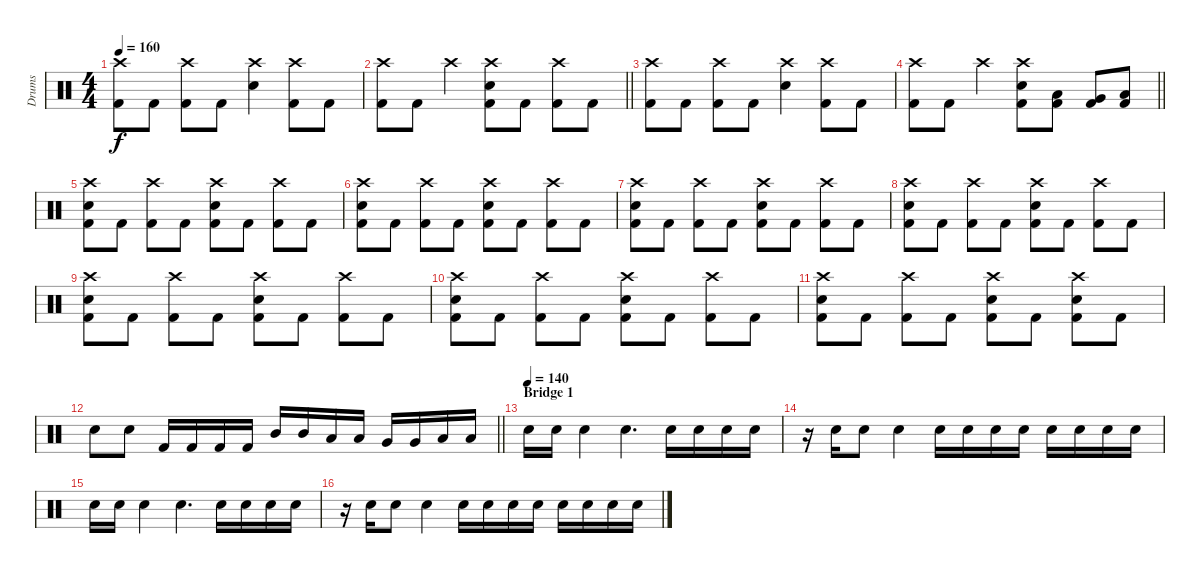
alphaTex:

\track ("Drums" "Drums") {instrument percussion}
\staff {score}
\articulation defaults
\ts (4 4)
\tempo 160
\clef neutral
\ks c
("Crash high (hit)" "Kick (hit) 2").8{dy f} "Kick (hit) 2".8 ("Crash high (hit)" "Kick (hit) 2").8 "Kick (hit) 2".8 ("Crash high (hit)" "Electric Snare (hit)").4 ("Crash high (hit)" "Kick (hit) 2").8 "Kick (hit) 2".8 |
\barLineRight lightlight
("Crash high (hit)" "Kick (hit) 2").8 "Kick (hit) 2".8 "Crash high (hit)".4 ("Crash high (hit)" "Electric Snare (hit)" "Kick (hit) 2").8 "Kick (hit) 2".8 ("Crash high (hit)" "Kick (hit) 2").8 "Kick (hit) 2".8 |
("Crash high (hit)" "Kick (hit) 2").8 "Kick (hit) 2".8 ("Crash high (hit)" "Kick (hit) 2").8 "Kick (hit) 2".8 ("Crash high (hit)" "Electric Snare (hit)").4 ("Crash high (hit)" "Kick (hit) 2").8 "Kick (hit) 2".8 |
\barLineRight lightlight
("Crash high (hit)" "Kick (hit) 2").8 "Kick (hit) 2".8 "Crash high (hit)".4 ("Crash high (hit)" "Electric Snare (hit)" "Kick (hit) 2").8 ("Low Tom (hit)" "Kick (hit) 2").8 ("Very Low Tom (hit)" "Kick (hit) 2").8 ("Low Floor Tom (hit)" "Kick (hit) 2").8 |
\section ("" "")
("Crash high (hit)" "Electric Snare (hit)" "Kick (hit) 2").8 "Kick (hit) 2".8 ("Crash high (hit)" "Kick (hit) 2").8 "Kick (hit) 2".8 ("Crash high (hit)" "Electric Snare (hit)" "Kick (hit) 2").8 "Kick (hit) 2".8 ("Crash high (hit)" "Kick (hit) 2").8 "Kick (hit) 2".8 |
("Crash high (hit)" "Electric Snare (hit)" "Kick (hit) 2").8 "Kick (hit) 2".8 ("Crash high (hit)" "Kick (hit) 2").8 "Kick (hit) 2".8 ("Crash high (hit)" "Electric Snare (hit)" "Kick (hit) 2").8 "Kick (hit) 2".8 ("Crash high (hit)" "Kick (hit) 2").8 "Kick (hit) 2".8 |
("Crash high (hit)" "Electric Snare (hit)" "Kick (hit) 2").8 "Kick (hit) 2".8 ("Crash high (hit)" "Kick (hit) 2").8 "Kick (hit) 2".8 ("Crash high (hit)" "Electric Snare (hit)" "Kick (hit) 2").8 "Kick (hit) 2".8 ("Crash high (hit)" "Kick (hit) 2").8 "Kick (hit) 2".8 |
("Crash high (hit)" "Electric Snare (hit)" "Kick (hit) 2").8 "Kick (hit) 2".8 ("Crash high (hit)" "Kick (hit) 2").8 "Kick (hit) 2".8 ("Crash high (hit)" "Electric Snare (hit)" "Kick (hit) 2").8 "Kick (hit) 2".8 ("Crash high (hit)" "Kick (hit) 2").8 "Kick (hit) 2".8 |
("Crash high (hit)" "Electric Snare (hit)" "Kick (hit) 2").8 "Kick (hit) 2".8 ("Crash high (hit)" "Kick (hit) 2").8 "Kick (hit) 2".8 ("Crash high (hit)" "Electric Snare (hit)" "Kick (hit) 2").8 "Kick (hit) 2".8 ("Crash high (hit)" "Kick (hit) 2").8 "Kick (hit) 2".8 |
("Crash high (hit)" "Electric Snare (hit)" "Kick (hit) 2").8 "Kick (hit) 2".8 ("Crash high (hit)" "Kick (hit) 2").8 "Kick (hit) 2".8 ("Crash high (hit)" "Electric Snare (hit)" "Kick (hit) 2").8 "Kick (hit) 2".8 ("Crash high (hit)" "Kick (hit) 2").8 "Kick (hit) 2".8 |
("Crash high (hit)" "Electric Snare (hit)" "Kick (hit) 2").8 "Kick (hit) 2".8 ("Crash high (hit)" "Kick (hit) 2").8 "Kick (hit) 2".8 ("Crash high (hit)" "Electric Snare (hit)" "Kick (hit) 2").8 "Kick (hit) 2".8 ("Crash high (hit)" "Electric Snare (hit)" "Kick (hit) 2").8 "Kick (hit) 2".8 |
\barLineRight lightlight "Electric Snare (hit)".8 "Electric Snare (hit)".8 "Kick (hit) 2".16 "Kick (hit) 2".16 "Kick (hit) 2".16 "Kick (hit) 2".16 "Mid Tom (hit)".16 "Mid Tom (hit)".16 "Low Tom (hit)".16 "Low Tom (hit)".16 "Very Low Tom (hit)".16 "Very Low Tom (hit)".16 "Low Floor Tom (hit)".16 "Low Floor Tom (hit)".16
|
\section ("" "Bridge 1")
\tempo (140)
"Electric Snare (hit)".16 "Electric Snare (hit)".16 "Electric Snare (hit)".4 "Electric Snare (hit)".4{d} "Electric Snare (hit)".16 "Electric Snare (hit)".16 "Electric Snare (hit)".16 "Electric Snare (hit)".16 |
r.16 "Electric Snare (hit)".16 "Electric Snare (hit)".8 "Electric Snare (hit)".4 "Electric Snare (hit)".16 "Electric Snare (hit)".16 "Electric Snare (hit)".16 "Electric Snare (hit)".16 "Electric Snare (hit)".16 "Electric Snare (hit)".16 "Electric Snare (hit)".16 "Electric Snare (hit)".16 |
"Electric Snare (hit)".16 "Electric Snare (hit)".16 "Electric Snare (hit)".4 "Electric Snare (hit)".4{d} "Electric Snare (hit)".16 "Electric Snare (hit)".16 "Electric Snare (hit)".16 "Electric Snare (hit)".16 |
r.16 "Electric Snare (hit)".16 "Electric Snare (hit)".8 "Electric Snare (hit)".4 "Electric Snare (hit)".16 "Electric Snare (hit)".16 "Electric Snare (hit)".16 "Electric Snare (hit)".16 "Electric Snare (hit)".16 "Electric Snare (hit)".16 "Electric Snare (hit)".16 "Electric Snare (hit)".16
